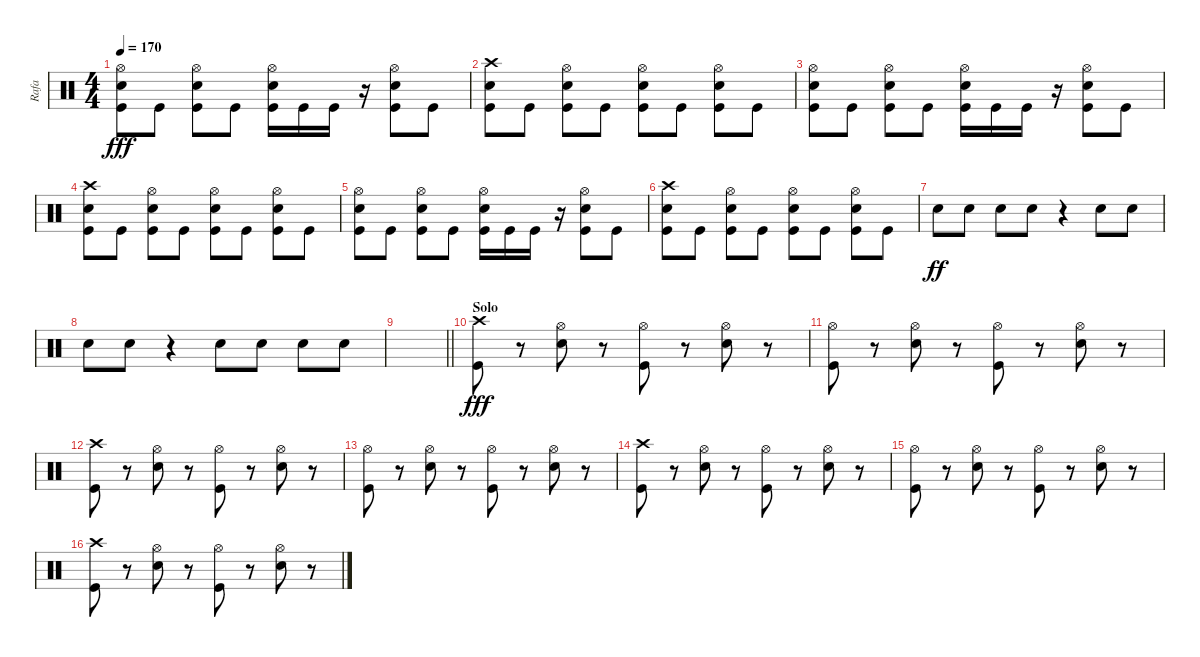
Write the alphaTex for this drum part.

\track ("Rafa" "Rafa") {instrument percussion}
\staff {score}
\articulation defaults
\ts (4 4)
\tempo 170
\clef neutral
\ks c
("Hi-Hat (open)" "Electric Snare (hit)" "Kick (hit)").8{dy fff} "Kick (hit)".8 ("Hi-Hat (open)" "Electric Snare (hit)" "Kick (hit)").8 "Kick (hit)".8 ("Hi-Hat (open)" "Electric Snare (hit)" "Kick (hit)").16 "Kick (hit)".16 "Kick (hit)".16 r.16 ("Hi-Hat (open)" "Electric Snare (hit)" "Kick (hit)").8 "Kick (hit)".8 |
("Crash high (hit)" "Electric Snare (hit)" "Kick (hit)").8 "Kick (hit)".8 ("Hi-Hat (open)" "Electric Snare (hit)" "Kick (hit)").8 "Kick (hit)".8 ("Hi-Hat (open)" "Electric Snare (hit)" "Kick (hit)").8 "Kick (hit)".8 ("Hi-Hat (open)" "Electric Snare (hit)" "Kick (hit)").8 "Kick (hit)".8 |
("Hi-Hat (open)" "Electric Snare (hit)" "Kick (hit)").8 "Kick (hit)".8 ("Hi-Hat (open)" "Electric Snare (hit)" "Kick (hit)").8 "Kick (hit)".8 ("Hi-Hat (open)" "Electric Snare (hit)" "Kick (hit)").16 "Kick (hit)".16 "Kick (hit)".16 r.16 ("Hi-Hat (open)" "Electric Snare (hit)" "Kick (hit)").8 "Kick (hit)".8 |
("Crash high (hit)" "Electric Snare (hit)" "Kick (hit)").8 "Kick (hit)".8 ("Hi-Hat (open)" "Electric Snare (hit)" "Kick (hit)").8 "Kick (hit)".8 ("Hi-Hat (open)" "Electric Snare (hit)" "Kick (hit)").8 "Kick (hit)".8 ("Hi-Hat (open)" "Electric Snare (hit)" "Kick (hit)").8 "Kick (hit)".8 |
("Hi-Hat (open)" "Electric Snare (hit)" "Kick (hit)").8 "Kick (hit)".8 ("Hi-Hat (open)" "Electric Snare (hit)" "Kick (hit)").8 "Kick (hit)".8 ("Hi-Hat (open)" "Electric Snare (hit)" "Kick (hit)").16 "Kick (hit)".16 "Kick (hit)".16 r.16 ("Hi-Hat (open)" "Electric Snare (hit)" "Kick (hit)").8 "Kick (hit)".8 |
("Crash high (hit)" "Electric Snare (hit)" "Kick (hit)").8 "Kick (hit)".8 ("Hi-Hat (open)" "Electric Snare (hit)" "Kick (hit)").8 "Kick (hit)".8 ("Hi-Hat (open)" "Electric Snare (hit)" "Kick (hit)").8 "Kick (hit)".8 ("Hi-Hat (open)" "Electric Snare (hit)" "Kick (hit)").8 "Kick (hit)".8 |
"Electric Snare (hit)".8{dy ff} "Electric Snare (hit)".8 "Electric Snare (hit)".8 "Electric Snare (hit)".8 r.4 "Electric Snare (hit)".8 "Electric Snare (hit)".8 |
"Electric Snare (hit)".8 "Electric Snare (hit)".8 r.4 "Electric Snare (hit)".8 "Electric Snare (hit)".8 "Electric Snare (hit)".8 "Electric Snare (hit)".8 |
\barLineRight lightlight
|
\section ("" "Solo")
("Crash high (hit)" "Kick (hit)").8{dy fff} r.8 ("Hi-Hat (open)" "Electric Snare (hit)").8 r.8 ("Hi-Hat (open)" "Kick (hit)").8 r.8 ("Hi-Hat (open)" "Electric Snare (hit)").8 r.8 |
("Hi-Hat (open)" "Kick (hit)").8 r.8 ("Hi-Hat (open)" "Electric Snare (hit)").8 r.8 ("Hi-Hat (open)" "Kick (hit)").8 r.8 ("Hi-Hat (open)" "Electric Snare (hit)").8 r.8 |
("Crash high (hit)" "Kick (hit)").8 r.8 ("Hi-Hat (open)" "Electric Snare (hit)").8 r.8 ("Hi-Hat (open)" "Kick (hit)").8 r.8 ("Hi-Hat (open)" "Electric Snare (hit)").8 r.8 |
("Hi-Hat (open)" "Kick (hit)").8 r.8 ("Hi-Hat (open)" "Electric Snare (hit)").8 r.8 ("Hi-Hat (open)" "Kick (hit)").8 r.8 ("Hi-Hat (open)" "Electric Snare (hit)").8 r.8 |
("Crash high (hit)" "Kick (hit)").8 r.8 ("Hi-Hat (open)" "Electric Snare (hit)").8 r.8 ("Hi-Hat (open)" "Kick (hit)").8 r.8 ("Hi-Hat (open)" "Electric Snare (hit)").8 r.8 |
("Hi-Hat (open)" "Kick (hit)").8 r.8 ("Hi-Hat (open)" "Electric Snare (hit)").8 r.8 ("Hi-Hat (open)" "Kick (hit)").8 r.8 ("Hi-Hat (open)" "Electric Snare (hit)").8 r.8 |
("Crash high (hit)" "Kick (hit)").8 r.8 ("Hi-Hat (open)" "Electric Snare (hit)").8 r.8 ("Hi-Hat (open)" "Kick (hit)").8 r.8 ("Hi-Hat (open)" "Electric Snare (hit)").8 r.8
